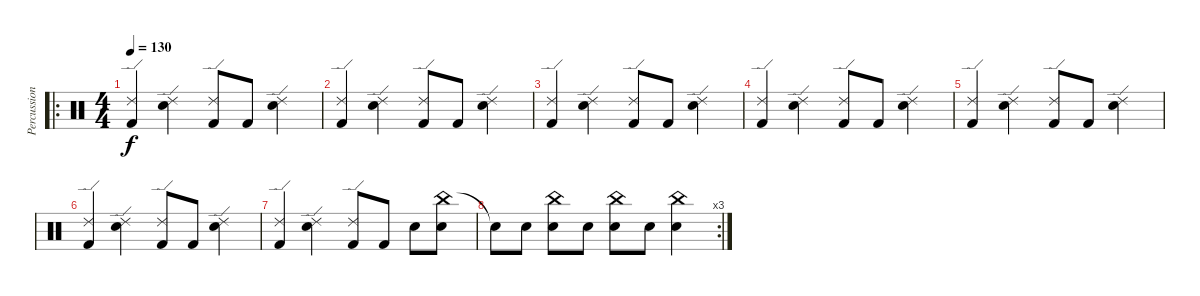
\track ("Percussion" "Percussion") {instrument percussion}
\staff {score}
\articulation defaults
\ro
\ts (4 4)
\tempo 130
\clef neutral
\ks c
("Ride (edge) 2" "Kick (hit) 2").4{dy f} ("Ride (edge) 2" "Snare (hit) 2").4 ("Ride (edge) 2" "Kick (hit) 2").8 "Kick (hit) 2".8 ("Ride (edge) 2" "Snare (hit) 2").4 |
("Ride (edge) 2" "Kick (hit) 2").4 ("Ride (edge) 2" "Snare (hit) 2").4 ("Ride (edge) 2" "Kick (hit) 2").8 "Kick (hit) 2".8 ("Ride (edge) 2" "Snare (hit) 2").4 |
("Ride (edge) 2" "Kick (hit) 2").4 ("Ride (edge) 2" "Snare (hit) 2").4 ("Ride (edge) 2" "Kick (hit) 2").8 "Kick (hit) 2".8 ("Ride (edge) 2" "Snare (hit) 2").4 |
("Ride (edge) 2" "Kick (hit) 2").4 ("Ride (edge) 2" "Snare (hit) 2").4 ("Ride (edge) 2" "Kick (hit) 2").8 "Kick (hit) 2".8 ("Ride (edge) 2" "Snare (hit) 2").4 |
("Ride (edge) 2" "Kick (hit) 2").4 ("Ride (edge) 2" "Snare (hit) 2").4 ("Ride (edge) 2" "Kick (hit) 2").8 "Kick (hit) 2".8 ("Ride (edge) 2" "Snare (hit) 2").4 |
("Ride (edge) 2" "Kick (hit) 2").4 ("Ride (edge) 2" "Snare (hit) 2").4 ("Ride (edge) 2" "Kick (hit) 2").8 "Kick (hit) 2".8 ("Ride (edge) 2" "Snare (hit) 2").4 |
("Ride (edge) 2" "Kick (hit) 2").4 ("Ride (edge) 2" "Snare (hit) 2").4 ("Ride (edge) 2" "Kick (hit) 2").8 "Kick (hit) 2".8 "Snare (hit) 2".8 ("China (hit)" "Snare (hit) 2").8 |
\rc 3 "Snare (hit)"{t}.8 "Snare (hit) 2".8
("China (hit)" "Snare (hit) 2").8 "Snare (hit) 2".8 ("China (hit)" "Snare (hit) 2").8 "Snare (hit) 2".8 ("China (hit)" "Snare (hit) 2").4
